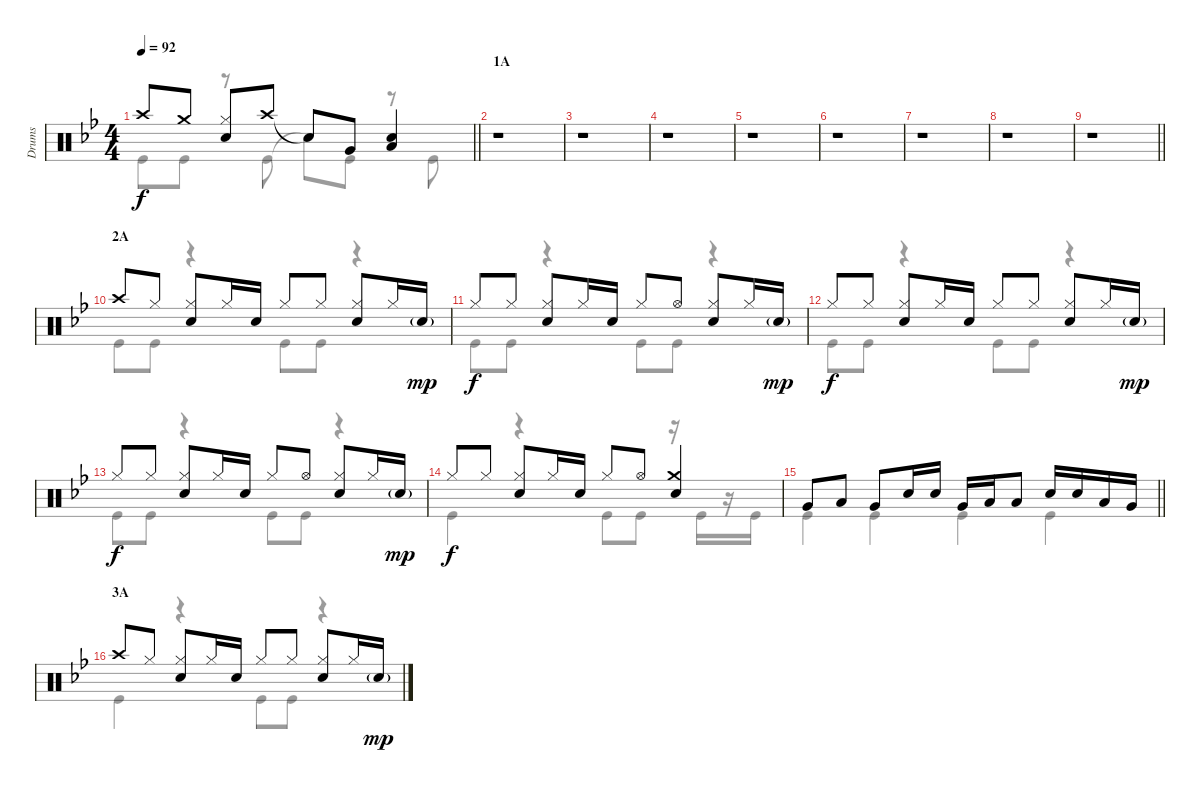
\track ("Drums" "Drums") {instrument percussion}
\staff {score}
\articulation defaults
\voice
\ts (4 4)
\tempo 92
\clef neutral
\barLineRight lightlight
\ks bb "Crash high (hit)".8{dy f} "Crash medium (hit)".8
("Hi-Hat (closed)" "Snare (hit) 2").8 "Crash high (hit)".8 "Snare (hit)"{t}.8 "Very Low Tom (hit)".8 ("Low Tom (hit)" "Snare (hit) 2").4 |
\section ("" "1A")
r.1 |
r.1 |
r.1 |
r.1 |
r.1 |
r.1 |
r.1 |
\barLineRight lightlight
r.1 |
\section ("" "2A")
"Crash high (hit)".8 "Hi-Hat (closed)".8 ("Hi-Hat (closed)" "Snare (hit) 2").8 "Hi-Hat (closed)".16 "Snare (hit) 2".16 "Hi-Hat (closed)".8 "Hi-Hat (closed)".8 ("Hi-Hat (closed)" "Snare (hit) 2").8 "Hi-Hat (closed)".16 "Snare (hit) 2"{g}.16{dy mp} |
"Hi-Hat (closed)".8{dy f} "Hi-Hat (closed)".8 ("Hi-Hat (closed)" "Snare (hit) 2").8 "Hi-Hat (closed)".16 "Snare (hit) 2".16 "Hi-Hat (closed)".8 "Hi-Hat (open)".8 ("Hi-Hat (closed)" "Snare (hit) 2").8 "Hi-Hat (closed)".16 "Snare (hit) 2"{g}.16{dy mp} |
"Hi-Hat (closed)".8{dy f} "Hi-Hat (closed)".8 ("Hi-Hat (closed)" "Snare (hit) 2").8 "Hi-Hat (closed)".16 "Snare (hit) 2".16 "Hi-Hat (closed)".8 "Hi-Hat (closed)".8 ("Hi-Hat (closed)" "Snare (hit) 2").8 "Hi-Hat (closed)".16 "Snare (hit) 2"{g}.16{dy mp} |
"Hi-Hat (closed)".8{dy f} "Hi-Hat (closed)".8 ("Hi-Hat (closed)" "Snare (hit) 2").8 "Hi-Hat (closed)".16 "Snare (hit) 2".16 "Hi-Hat (closed)".8 "Hi-Hat (open)".8 ("Hi-Hat (closed)" "Snare (hit) 2").8 "Hi-Hat (closed)".16 "Snare (hit) 2"{g}.16{dy mp} |
"Hi-Hat (closed)".8{dy f} "Hi-Hat (closed)".8 ("Hi-Hat (closed)" "Snare (hit) 2").8 "Hi-Hat (closed)".16 "Snare (hit) 2".16 "Hi-Hat (closed)".8 "Hi-Hat (open)".8 ("Crash medium (hit)" "Snare (hit) 2").4 |
\barLineRight lightlight "Very Low Tom (hit)".8 "Low Tom (hit)".8 "Very Low Tom (hit)".8 "Snare (hit) 2".16 "Snare (hit) 2".16 "Very Low Tom (hit)".16 "Low Tom (hit)".16 "Low Tom (hit)".8 "Snare (hit) 2".16 "Snare (hit) 2".16 "Low Tom (hit)".16 "Very Low Tom (hit)".16
|
\section ("" "3A")
"Crash high (hit)".8 "Hi-Hat (closed)".8 ("Hi-Hat (closed)" "Snare (hit) 2").8 "Hi-Hat (closed)".16 "Snare (hit) 2".16 "Hi-Hat (closed)".8 "Hi-Hat (closed)".8 ("Hi-Hat (closed)" "Snare (hit) 2").8 "Hi-Hat (closed)".16 "Snare (hit) 2"{g}.16{dy mp}
\voice
\clef neutral
\ottava regular
\simile none
\barLineRight lightlight
\ks bb "Kick (hit)".8{dy f} "Kick (hit)".8
r.8 "Kick (hit)".8 "Snare (hit)"{t}.8 "Kick (hit)".8 r.8 "Kick (hit)".8 |
r.1 |
r.1 |
r.1 |
r.1 |
r.1 |
r.1 |
r.1 |
\barLineRight lightlight
r.1 |
"Kick (hit)".8 "Kick (hit)".8 r.4 "Kick (hit)".8 "Kick (hit)".8 r.4 |
"Kick (hit)".8 "Kick (hit)".8 r.4 "Kick (hit)".8 "Kick (hit)".8 r.4 |
"Kick (hit)".8 "Kick (hit)".8 r.4 "Kick (hit)".8 "Kick (hit)".8 r.4 |
"Kick (hit)".8 "Kick (hit)".8 r.4 "Kick (hit)".8 "Kick (hit)".8 r.4 |
"Kick (hit)".4 r.4 "Kick (hit)".8 "Kick (hit)".8 r.16 "Kick (hit)".16 r.16 "Kick (hit)".16 |
\barLineRight lightlight "Kick (hit)".4 "Kick (hit)".4 "Kick (hit)".4 "Kick (hit)".4
|
"Kick (hit)".4 r.4 "Kick (hit)".8 "Kick (hit)".8 r.4
